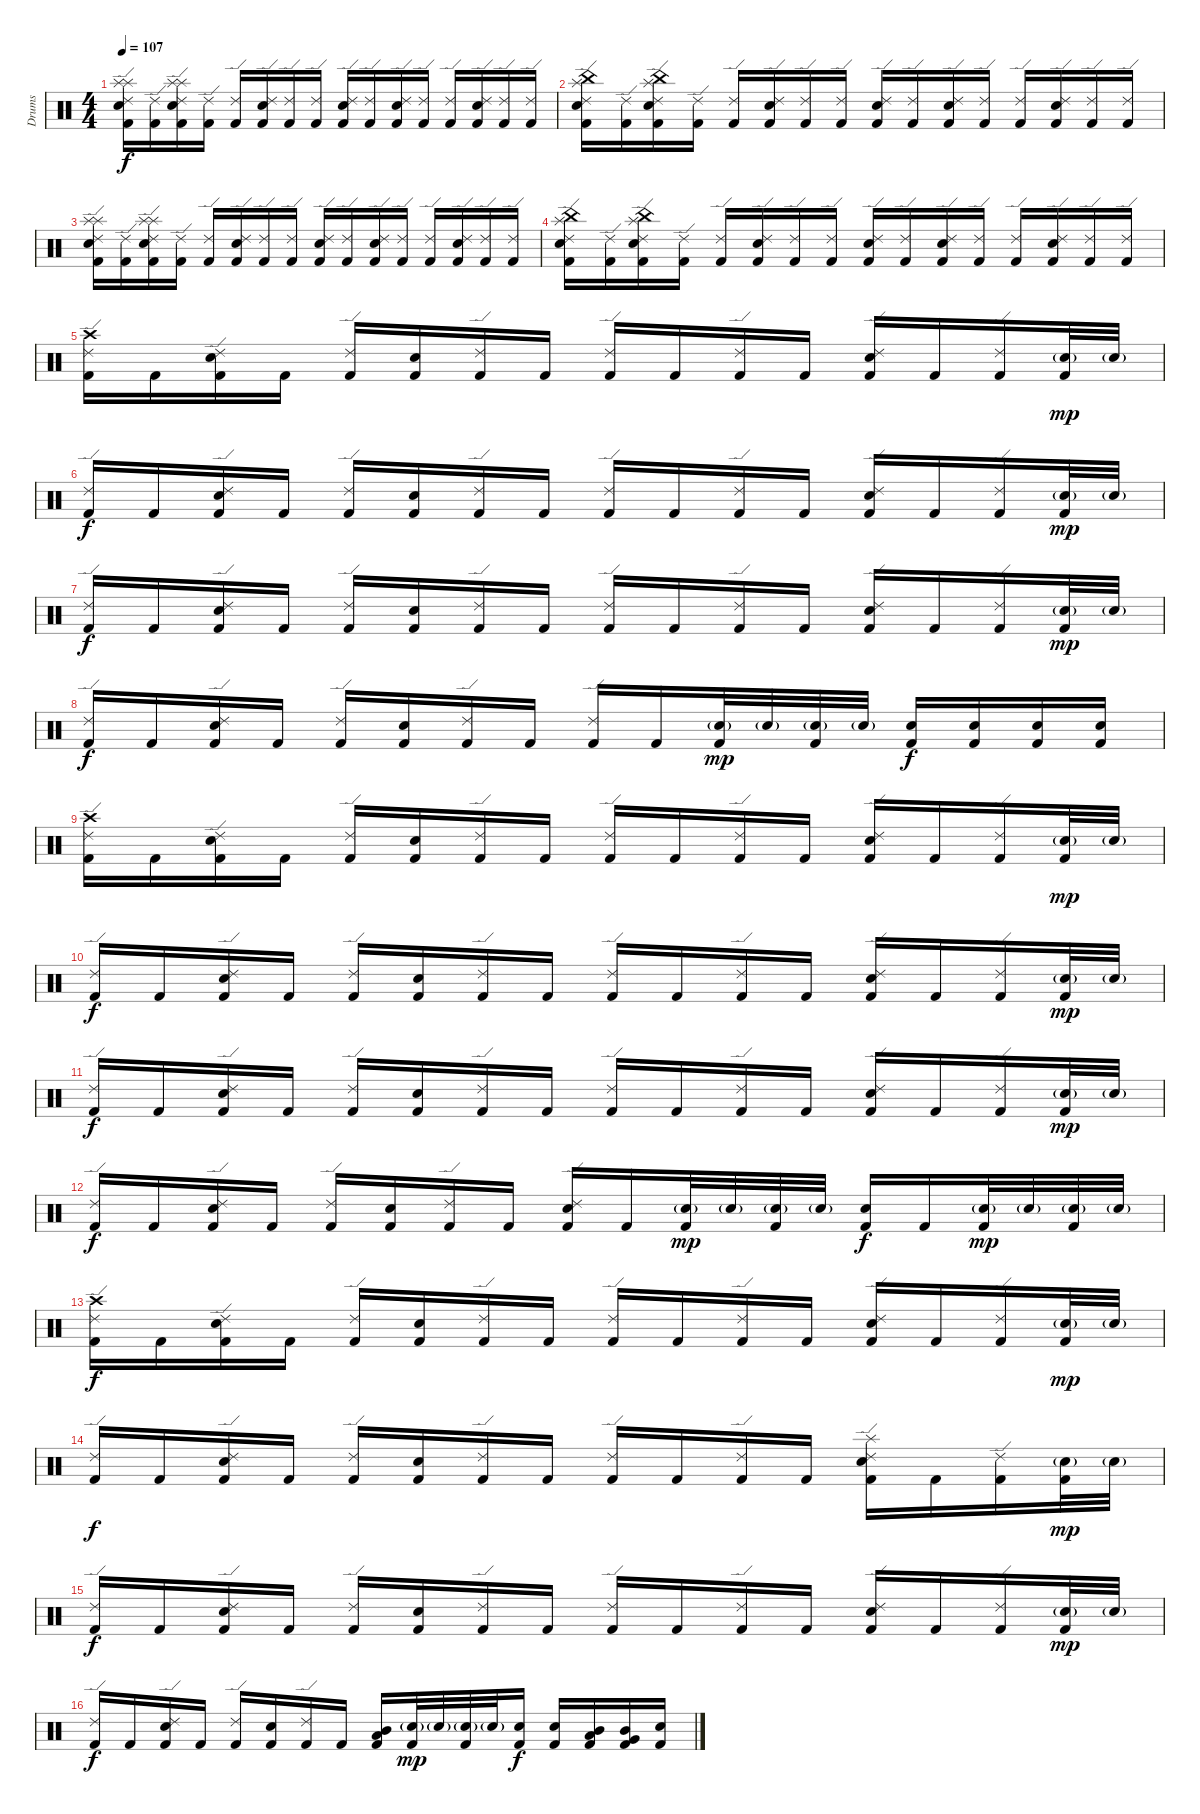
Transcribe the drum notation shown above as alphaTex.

\track ("Drums" "Drums") {instrument percussion}
\staff {score}
\articulation defaults
\ts (4 4)
\tempo 107
\clef neutral
\ks c
("Kick (hit) 2" "Electric Snare (hit)" "Ride (edge) 2" "Splash (hit)" "Splash (hit)").16{dy f} ("Kick (hit) 2" "Ride (edge) 2").16 ("Kick (hit) 2" "Electric Snare (hit)" "Ride (edge) 2" "Splash (hit)" "Splash (hit)").16 ("Kick (hit) 2" "Ride (edge) 2").16 ("Kick (hit) 2" "Ride (edge) 2").16 ("Kick (hit) 2" "Electric Snare (hit)" "Ride (edge) 2").16 ("Kick (hit) 2" "Ride (edge) 2").16 ("Kick (hit) 2" "Ride (edge) 2").16 ("Kick (hit) 2" "Electric Snare (hit)" "Ride (edge) 2").16 ("Kick (hit) 2" "Ride (edge) 2").16 ("Kick (hit) 2" "Electric Snare (hit)" "Ride (edge) 2").16 ("Kick (hit) 2" "Ride (edge) 2").16 ("Kick (hit) 2" "Ride (edge) 2").16 ("Kick (hit) 2" "Electric Snare (hit)" "Ride (edge) 2").16 ("Kick (hit) 2" "Ride (edge) 2").16 ("Kick (hit) 2" "Ride (edge) 2").16 |
("Kick (hit) 2" "Electric Snare (hit)" "Ride (edge) 2" "Splash (hit)" "China (hit)").16 ("Kick (hit) 2" "Ride (edge) 2").16 ("Kick (hit) 2" "Electric Snare (hit)" "Ride (edge) 2" "Splash (hit)" "China (hit)").16 ("Kick (hit) 2" "Ride (edge) 2").16 ("Kick (hit) 2" "Ride (edge) 2").16 ("Kick (hit) 2" "Electric Snare (hit)" "Ride (edge) 2").16 ("Kick (hit) 2" "Ride (edge) 2").16 ("Kick (hit) 2" "Ride (edge) 2").16 ("Kick (hit) 2" "Electric Snare (hit)" "Ride (edge) 2").16 ("Kick (hit) 2" "Ride (edge) 2").16 ("Kick (hit) 2" "Electric Snare (hit)" "Ride (edge) 2").16 ("Kick (hit) 2" "Ride (edge) 2").16 ("Kick (hit) 2" "Ride (edge) 2").16 ("Kick (hit) 2" "Electric Snare (hit)" "Ride (edge) 2").16 ("Kick (hit) 2" "Ride (edge) 2").16 ("Kick (hit) 2" "Ride (edge) 2").16 |
("Kick (hit) 2" "Electric Snare (hit)" "Ride (edge) 2" "Splash (hit)" "Splash (hit)").16 ("Kick (hit) 2" "Ride (edge) 2").16 ("Kick (hit) 2" "Electric Snare (hit)" "Ride (edge) 2" "Splash (hit)" "Splash (hit)").16 ("Kick (hit) 2" "Ride (edge) 2").16 ("Kick (hit) 2" "Ride (edge) 2").16 ("Kick (hit) 2" "Electric Snare (hit)" "Ride (edge) 2").16 ("Kick (hit) 2" "Ride (edge) 2").16 ("Kick (hit) 2" "Ride (edge) 2").16 ("Kick (hit) 2" "Electric Snare (hit)" "Ride (edge) 2").16 ("Kick (hit) 2" "Ride (edge) 2").16 ("Kick (hit) 2" "Electric Snare (hit)" "Ride (edge) 2").16 ("Kick (hit) 2" "Ride (edge) 2").16 ("Kick (hit) 2" "Ride (edge) 2").16 ("Kick (hit) 2" "Electric Snare (hit)" "Ride (edge) 2").16 ("Kick (hit) 2" "Ride (edge) 2").16 ("Kick (hit) 2" "Ride (edge) 2").16 |
("Kick (hit) 2" "Electric Snare (hit)" "Ride (edge) 2" "Splash (hit)" "China (hit)").16 ("Kick (hit) 2" "Ride (edge) 2").16 ("Kick (hit) 2" "Electric Snare (hit)" "Ride (edge) 2" "Splash (hit)" "China (hit)").16 ("Kick (hit) 2" "Ride (edge) 2").16 ("Kick (hit) 2" "Ride (edge) 2").16 ("Kick (hit) 2" "Electric Snare (hit)" "Ride (edge) 2").16 ("Kick (hit) 2" "Ride (edge) 2").16 ("Kick (hit) 2" "Ride (edge) 2").16 ("Kick (hit) 2" "Electric Snare (hit)" "Ride (edge) 2").16 ("Kick (hit) 2" "Ride (edge) 2").16 ("Kick (hit) 2" "Electric Snare (hit)" "Ride (edge) 2").16 ("Kick (hit) 2" "Ride (edge) 2").16 ("Kick (hit) 2" "Ride (edge) 2").16 ("Kick (hit) 2" "Electric Snare (hit)" "Ride (edge) 2").16 ("Kick (hit) 2" "Ride (edge) 2").16 ("Kick (hit) 2" "Ride (edge) 2").16 |
("Kick (hit) 2" "Ride (edge) 2" "Crash high (hit)").16 "Kick (hit) 2".16 ("Kick (hit) 2" "Electric Snare (hit)" "Ride (edge) 2").16 "Kick (hit) 2".16 ("Kick (hit) 2" "Ride (edge) 2").16 ("Kick (hit) 2" "Electric Snare (hit)").16 ("Kick (hit) 2" "Ride (edge) 2").16 "Kick (hit) 2".16 ("Kick (hit) 2" "Ride (edge) 2").16 "Kick (hit) 2".16 ("Kick (hit) 2" "Ride (edge) 2").16 "Kick (hit) 2".16 ("Kick (hit) 2" "Electric Snare (hit)" "Ride (edge) 2").16 "Kick (hit) 2".16 ("Kick (hit) 2" "Ride (edge) 2").16 ("Kick (hit) 2" "Electric Snare (hit)"{g}).32{dy mp} "Electric Snare (hit)"{g}.32 |
("Kick (hit) 2" "Ride (edge) 2").16{dy f} "Kick (hit) 2".16 ("Kick (hit) 2" "Electric Snare (hit)" "Ride (edge) 2").16 "Kick (hit) 2".16 ("Kick (hit) 2" "Ride (edge) 2").16 ("Kick (hit) 2" "Electric Snare (hit)").16 ("Kick (hit) 2" "Ride (edge) 2").16 "Kick (hit) 2".16 ("Kick (hit) 2" "Ride (edge) 2").16 "Kick (hit) 2".16 ("Kick (hit) 2" "Ride (edge) 2").16 "Kick (hit) 2".16 ("Kick (hit) 2" "Electric Snare (hit)" "Ride (edge) 2").16 "Kick (hit) 2".16 ("Kick (hit) 2" "Ride (edge) 2").16 ("Kick (hit) 2" "Electric Snare (hit)"{g}).32{dy mp} "Electric Snare (hit)"{g}.32 |
("Kick (hit) 2" "Ride (edge) 2").16{dy f} "Kick (hit) 2".16 ("Kick (hit) 2" "Electric Snare (hit)" "Ride (edge) 2").16 "Kick (hit) 2".16 ("Kick (hit) 2" "Ride (edge) 2").16 ("Kick (hit) 2" "Electric Snare (hit)").16 ("Kick (hit) 2" "Ride (edge) 2").16 "Kick (hit) 2".16 ("Kick (hit) 2" "Ride (edge) 2").16 "Kick (hit) 2".16 ("Kick (hit) 2" "Ride (edge) 2").16 "Kick (hit) 2".16 ("Kick (hit) 2" "Electric Snare (hit)" "Ride (edge) 2").16 "Kick (hit) 2".16 ("Kick (hit) 2" "Ride (edge) 2").16 ("Kick (hit) 2" "Electric Snare (hit)"{g}).32{dy mp} "Electric Snare (hit)"{g}.32 |
("Kick (hit) 2" "Ride (edge) 2").16{dy f} "Kick (hit) 2".16 ("Kick (hit) 2" "Electric Snare (hit)" "Ride (edge) 2").16 "Kick (hit) 2".16 ("Kick (hit) 2" "Ride (edge) 2").16 ("Kick (hit) 2" "Electric Snare (hit)").16 ("Kick (hit) 2" "Ride (edge) 2").16 "Kick (hit) 2".16 ("Kick (hit) 2" "Ride (edge) 2").16 "Kick (hit) 2".16 ("Kick (hit) 2" "Electric Snare (hit)"{g}).32{dy mp} "Electric Snare (hit)"{g}.32 ("Kick (hit) 2" "Electric Snare (hit)"{g}).32 "Electric Snare (hit)"{g}.32 ("Kick (hit) 2" "Electric Snare (hit)").16{dy f} ("Kick (hit) 2" "Electric Snare (hit)").16 ("Kick (hit) 2" "Electric Snare (hit)").16 ("Kick (hit) 2" "Electric Snare (hit)").16 |
("Kick (hit) 2" "Ride (edge) 2" "Crash high (hit)").16 "Kick (hit) 2".16 ("Kick (hit) 2" "Electric Snare (hit)" "Ride (edge) 2").16 "Kick (hit) 2".16 ("Kick (hit) 2" "Ride (edge) 2").16 ("Kick (hit) 2" "Electric Snare (hit)").16 ("Kick (hit) 2" "Ride (edge) 2").16 "Kick (hit) 2".16 ("Kick (hit) 2" "Ride (edge) 2").16 "Kick (hit) 2".16 ("Kick (hit) 2" "Ride (edge) 2").16 "Kick (hit) 2".16 ("Kick (hit) 2" "Electric Snare (hit)" "Ride (edge) 2").16 "Kick (hit) 2".16 ("Kick (hit) 2" "Ride (edge) 2").16 ("Kick (hit) 2" "Electric Snare (hit)"{g}).32{dy mp} "Electric Snare (hit)"{g}.32 |
("Kick (hit) 2" "Ride (edge) 2").16{dy f} "Kick (hit) 2".16 ("Kick (hit) 2" "Electric Snare (hit)" "Ride (edge) 2").16 "Kick (hit) 2".16 ("Kick (hit) 2" "Ride (edge) 2").16 ("Kick (hit) 2" "Electric Snare (hit)").16 ("Kick (hit) 2" "Ride (edge) 2").16 "Kick (hit) 2".16 ("Kick (hit) 2" "Ride (edge) 2").16 "Kick (hit) 2".16 ("Kick (hit) 2" "Ride (edge) 2").16 "Kick (hit) 2".16 ("Kick (hit) 2" "Electric Snare (hit)" "Ride (edge) 2").16 "Kick (hit) 2".16 ("Kick (hit) 2" "Ride (edge) 2").16 ("Kick (hit) 2" "Electric Snare (hit)"{g}).32{dy mp} "Electric Snare (hit)"{g}.32 |
("Kick (hit) 2" "Ride (edge) 2").16{dy f} "Kick (hit) 2".16 ("Kick (hit) 2" "Electric Snare (hit)" "Ride (edge) 2").16 "Kick (hit) 2".16 ("Kick (hit) 2" "Ride (edge) 2").16 ("Kick (hit) 2" "Electric Snare (hit)").16 ("Kick (hit) 2" "Ride (edge) 2").16 "Kick (hit) 2".16 ("Kick (hit) 2" "Ride (edge) 2").16 "Kick (hit) 2".16 ("Kick (hit) 2" "Ride (edge) 2").16 "Kick (hit) 2".16 ("Kick (hit) 2" "Electric Snare (hit)" "Ride (edge) 2").16 "Kick (hit) 2".16 ("Kick (hit) 2" "Ride (edge) 2").16 ("Kick (hit) 2" "Electric Snare (hit)"{g}).32{dy mp} "Electric Snare (hit)"{g}.32 |
("Kick (hit) 2" "Ride (edge) 2").16{dy f} "Kick (hit) 2".16 ("Kick (hit) 2" "Electric Snare (hit)" "Ride (edge) 2").16 "Kick (hit) 2".16 ("Kick (hit) 2" "Ride (edge) 2").16 ("Kick (hit) 2" "Electric Snare (hit)").16 ("Kick (hit) 2" "Ride (edge) 2").16 "Kick (hit) 2".16 ("Kick (hit) 2" "Electric Snare (hit)" "Ride (edge) 2").16 "Kick (hit) 2".16 ("Kick (hit) 2" "Electric Snare (hit)"{g}).32{dy mp} "Electric Snare (hit)"{g}.32 ("Kick (hit) 2" "Electric Snare (hit)"{g}).32 "Electric Snare (hit)"{g}.32 ("Kick (hit) 2" "Electric Snare (hit)").16{dy f} "Kick (hit) 2".16 ("Kick (hit) 2" "Electric Snare (hit)"{g}).32{dy mp} "Electric Snare (hit)"{g}.32 ("Kick (hit) 2" "Electric Snare (hit)"{g}).32 "Electric Snare (hit)"{g}.32 |
("Kick (hit) 2" "Ride (edge) 2" "Crash high (hit)").16{dy f} "Kick (hit) 2".16 ("Kick (hit) 2" "Electric Snare (hit)" "Ride (edge) 2").16 "Kick (hit) 2".16 ("Kick (hit) 2" "Ride (edge) 2").16 ("Kick (hit) 2" "Electric Snare (hit)").16 ("Kick (hit) 2" "Ride (edge) 2").16 "Kick (hit) 2".16 ("Kick (hit) 2" "Ride (edge) 2").16 "Kick (hit) 2".16 ("Kick (hit) 2" "Ride (edge) 2").16 "Kick (hit) 2".16 ("Kick (hit) 2" "Electric Snare (hit)" "Ride (edge) 2").16 "Kick (hit) 2".16 ("Kick (hit) 2" "Ride (edge) 2").16 ("Kick (hit) 2" "Electric Snare (hit)"{g}).32{dy mp} "Electric Snare (hit)"{g}.32 |
("Kick (hit) 2" "Ride (edge) 2").16{dy f} "Kick (hit) 2".16 ("Kick (hit) 2" "Electric Snare (hit)" "Ride (edge) 2").16 "Kick (hit) 2".16 ("Kick (hit) 2" "Ride (edge) 2").16 ("Kick (hit) 2" "Electric Snare (hit)").16 ("Kick (hit) 2" "Ride (edge) 2").16 "Kick (hit) 2".16 ("Kick (hit) 2" "Ride (edge) 2").16 "Kick (hit) 2".16 ("Kick (hit) 2" "Ride (edge) 2").16 "Kick (hit) 2".16 ("Kick (hit) 2" "Electric Snare (hit)" "Ride (edge) 2" "Splash (hit)").16 "Kick (hit) 2".16 ("Kick (hit) 2" "Ride (edge) 2").16 ("Kick (hit) 2" "Electric Snare (hit)"{g}).32{dy mp} "Electric Snare (hit)"{g}.32 |
("Kick (hit) 2" "Ride (edge) 2").16{dy f} "Kick (hit) 2".16 ("Kick (hit) 2" "Electric Snare (hit)" "Ride (edge) 2").16 "Kick (hit) 2".16 ("Kick (hit) 2" "Ride (edge) 2").16 ("Kick (hit) 2" "Electric Snare (hit)").16 ("Kick (hit) 2" "Ride (edge) 2").16 "Kick (hit) 2".16 ("Kick (hit) 2" "Ride (edge) 2").16 "Kick (hit) 2".16 ("Kick (hit) 2" "Ride (edge) 2").16 "Kick (hit) 2".16 ("Kick (hit) 2" "Electric Snare (hit)" "Ride (edge) 2").16 "Kick (hit) 2".16 ("Kick (hit) 2" "Ride (edge) 2").16 ("Kick (hit) 2" "Electric Snare (hit)"{g}).32{dy mp} "Electric Snare (hit)"{g}.32 |
("Kick (hit) 2" "Ride (edge) 2").16{dy f} "Kick (hit) 2".16 ("Kick (hit) 2" "Electric Snare (hit)" "Ride (edge) 2").16 "Kick (hit) 2".16 ("Kick (hit) 2" "Ride (edge) 2").16 ("Kick (hit) 2" "Electric Snare (hit)").16 ("Kick (hit) 2" "Ride (edge) 2").16 "Kick (hit) 2".16 ("Kick (hit) 2" "Mid Tom (hit)" "Low Tom (hit)").16 ("Kick (hit) 2" "Electric Snare (hit)"{g}).32{dy mp} "Electric Snare (hit)"{g}.32 ("Kick (hit) 2" "Electric Snare (hit)"{g}).32 "Electric Snare (hit)"{g}.32 ("Kick (hit) 2" "Electric Snare (hit)").16{dy f} ("Kick (hit) 2" "Electric Snare (hit)").16 ("Kick (hit) 2" "Mid Tom (hit)" "Low Tom (hit)").16 ("Kick (hit) 2" "Mid Tom (hit)" "Very Low Tom (hit)").16 ("Kick (hit) 2" "Electric Snare (hit)").16
